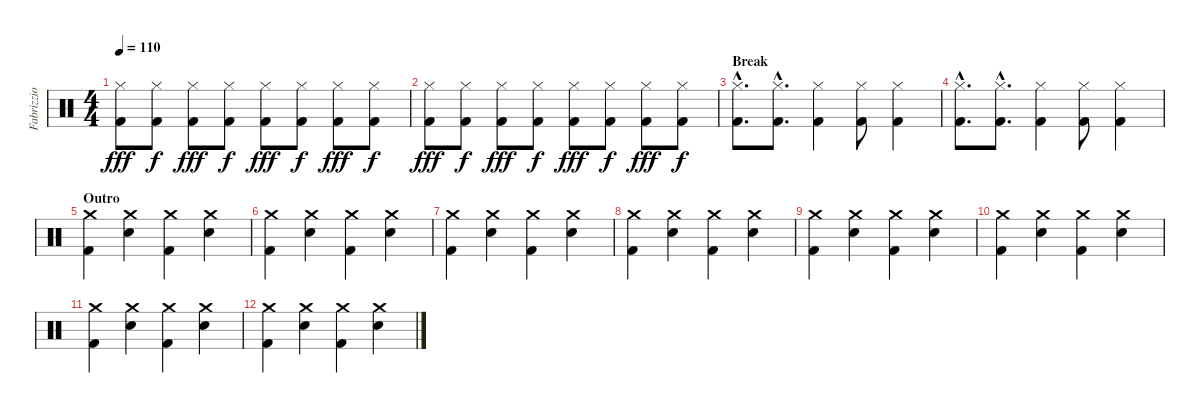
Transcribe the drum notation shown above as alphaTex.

\track ("Fabrizzio Moretti Drums perfomance" "Fabrizzio ") {instrument percussion}
\staff {score}
\articulation defaults
\ts (4 4)
\tempo 110
\clef neutral
\ks c
("Hi-Hat (closed)" "Kick (hit) 2").8{dy fff} ("Hi-Hat (closed)" "Kick (hit) 2").8{dy f} ("Hi-Hat (closed)" "Kick (hit) 2").8{dy fff} ("Hi-Hat (closed)" "Kick (hit) 2").8{dy f} ("Hi-Hat (closed)" "Kick (hit) 2").8{dy fff} ("Hi-Hat (closed)" "Kick (hit) 2").8{dy f} ("Hi-Hat (closed)" "Kick (hit) 2").8{dy fff} ("Hi-Hat (closed)" "Kick (hit) 2").8{dy f} |
("Hi-Hat (closed)" "Kick (hit) 2").8{dy fff} ("Hi-Hat (closed)" "Kick (hit) 2").8{dy f} ("Hi-Hat (closed)" "Kick (hit) 2").8{dy fff} ("Hi-Hat (closed)" "Kick (hit) 2").8{dy f} ("Hi-Hat (closed)" "Kick (hit) 2").8{dy fff} ("Hi-Hat (closed)" "Kick (hit) 2").8{dy f} ("Hi-Hat (closed)" "Kick (hit) 2").8{dy fff} ("Hi-Hat (closed)" "Kick (hit) 2").8{dy f} |
\section ("" "Break")
("Kick (hit) 2"{hac} "Hi-Hat (closed)"{hac}).8{d} ("Kick (hit) 2"{hac} "Hi-Hat (closed)"{hac}).8{d} ("Kick (hit) 2" "Hi-Hat (closed)").4 ("Kick (hit) 2" "Hi-Hat (closed)").8 ("Kick (hit) 2" "Hi-Hat (closed)").4 |
("Kick (hit) 2"{hac} "Hi-Hat (closed)"{hac}).8{d} ("Kick (hit) 2"{hac} "Hi-Hat (closed)"{hac}).8{d} ("Kick (hit) 2" "Hi-Hat (closed)").4 ("Kick (hit) 2" "Hi-Hat (closed)").8 ("Kick (hit) 2" "Hi-Hat (closed)").4 |
\section ("" "Outro")
("Crash medium (hit)" "Kick (hit) 2").4 ("Crash medium (hit)" "Electric Snare (hit)").4 ("Crash medium (hit)" "Kick (hit) 2").4 ("Crash medium (hit)" "Electric Snare (hit)").4 |
("Crash medium (hit)" "Kick (hit) 2").4 ("Crash medium (hit)" "Electric Snare (hit)").4 ("Crash medium (hit)" "Kick (hit) 2").4 ("Crash medium (hit)" "Electric Snare (hit)").4 |
("Crash medium (hit)" "Kick (hit) 2").4 ("Crash medium (hit)" "Electric Snare (hit)").4 ("Crash medium (hit)" "Kick (hit) 2").4 ("Crash medium (hit)" "Electric Snare (hit)").4 |
("Crash medium (hit)" "Kick (hit) 2").4 ("Crash medium (hit)" "Electric Snare (hit)").4 ("Crash medium (hit)" "Kick (hit) 2").4 ("Crash medium (hit)" "Electric Snare (hit)").4 |
("Crash medium (hit)" "Kick (hit) 2").4 ("Crash medium (hit)" "Electric Snare (hit)").4 ("Crash medium (hit)" "Kick (hit) 2").4 ("Crash medium (hit)" "Electric Snare (hit)").4 |
("Crash medium (hit)" "Kick (hit) 2").4 ("Crash medium (hit)" "Electric Snare (hit)").4 ("Crash medium (hit)" "Kick (hit) 2").4 ("Crash medium (hit)" "Electric Snare (hit)").4 |
("Crash medium (hit)" "Kick (hit) 2").4 ("Crash medium (hit)" "Electric Snare (hit)").4 ("Crash medium (hit)" "Kick (hit) 2").4 ("Crash medium (hit)" "Electric Snare (hit)").4 |
("Crash medium (hit)" "Kick (hit) 2").4 ("Crash medium (hit)" "Electric Snare (hit)").4 ("Crash medium (hit)" "Kick (hit) 2").4 ("Crash medium (hit)" "Electric Snare (hit)").4
